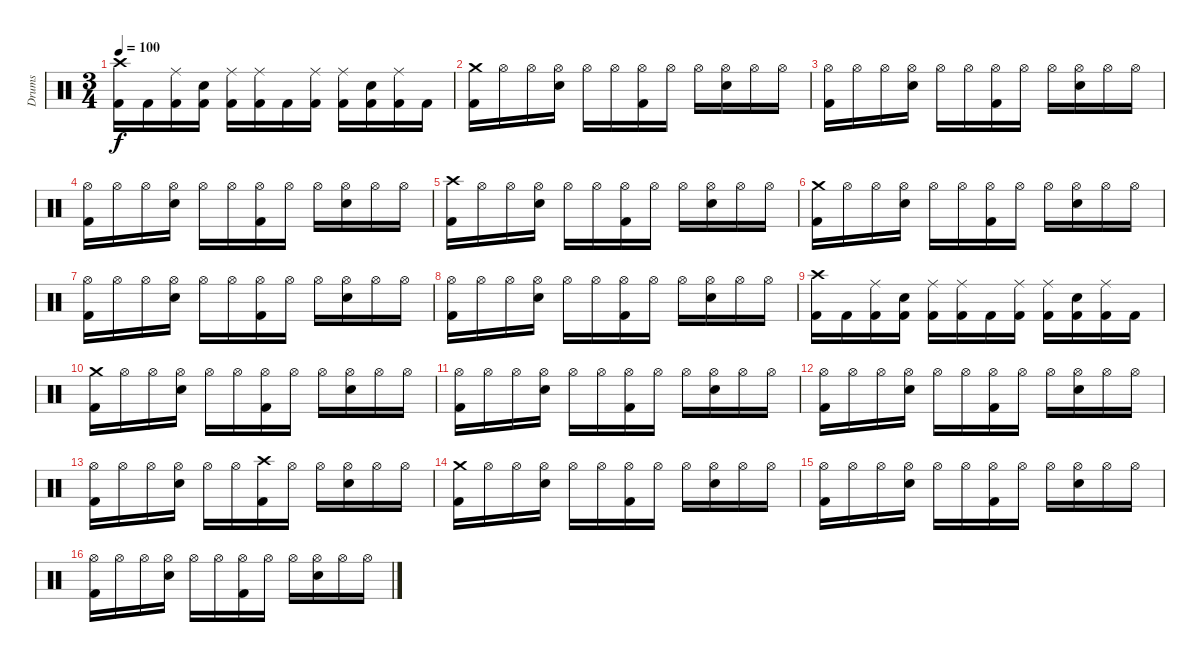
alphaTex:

\track ("Drums" "Drums") {instrument percussion}
\staff {score}
\articulation defaults
\ts (3 4)
\tempo 100
\clef neutral
\ks c
("Crash high (hit)" "Kick (hit) 2").16{dy f} "Kick (hit) 2".16 ("Ride (middle)" "Kick (hit) 2").16 ("Electric Snare (hit)" "Kick (hit) 2").16 ("Ride (middle)" "Kick (hit) 2").16 ("Ride (middle)" "Kick (hit) 2").16 "Kick (hit) 2".16 ("Ride (middle)" "Kick (hit) 2").16 ("Ride (middle)" "Kick (hit) 2").16 ("Electric Snare (hit)" "Kick (hit) 2").16 ("Ride (middle)" "Kick (hit) 2").16 "Kick (hit) 2".16 |
("Crash medium (hit)" "Kick (hit) 2").16 "Hi-Hat (open)".16 "Hi-Hat (open)".16 ("Hi-Hat (open)" "Electric Snare (hit)").16 "Hi-Hat (open)".16 "Hi-Hat (open)".16 ("Hi-Hat (open)" "Kick (hit) 2").16 "Hi-Hat (open)".16 "Hi-Hat (open)".16 ("Hi-Hat (open)" "Electric Snare (hit)").16 "Hi-Hat (open)".16 "Hi-Hat (open)".16 |
("Hi-Hat (open)" "Kick (hit) 2").16 "Hi-Hat (open)".16 "Hi-Hat (open)".16 ("Hi-Hat (open)" "Electric Snare (hit)").16 "Hi-Hat (open)".16 "Hi-Hat (open)".16 ("Hi-Hat (open)" "Kick (hit) 2").16 "Hi-Hat (open)".16 "Hi-Hat (open)".16 ("Hi-Hat (open)" "Electric Snare (hit)").16 "Hi-Hat (open)".16 "Hi-Hat (open)".16 |
("Hi-Hat (open)" "Kick (hit) 2").16 "Hi-Hat (open)".16 "Hi-Hat (open)".16 ("Hi-Hat (open)" "Electric Snare (hit)").16 "Hi-Hat (open)".16 "Hi-Hat (open)".16 ("Hi-Hat (open)" "Kick (hit) 2").16 "Hi-Hat (open)".16 "Hi-Hat (open)".16 ("Hi-Hat (open)" "Electric Snare (hit)").16 "Hi-Hat (open)".16 "Hi-Hat (open)".16 |
("Crash high (hit)" "Kick (hit) 2").16 "Hi-Hat (open)".16 "Hi-Hat (open)".16 ("Hi-Hat (open)" "Electric Snare (hit)").16 "Hi-Hat (open)".16 "Hi-Hat (open)".16 ("Hi-Hat (open)" "Kick (hit) 2").16 "Hi-Hat (open)".16 "Hi-Hat (open)".16 ("Hi-Hat (open)" "Electric Snare (hit)").16 "Hi-Hat (open)".16 "Hi-Hat (open)".16 |
("Crash medium (hit)" "Kick (hit) 2").16 "Hi-Hat (open)".16 "Hi-Hat (open)".16 ("Hi-Hat (open)" "Electric Snare (hit)").16 "Hi-Hat (open)".16 "Hi-Hat (open)".16 ("Hi-Hat (open)" "Kick (hit) 2").16 "Hi-Hat (open)".16 "Hi-Hat (open)".16 ("Hi-Hat (open)" "Electric Snare (hit)").16 "Hi-Hat (open)".16 "Hi-Hat (open)".16 |
("Hi-Hat (open)" "Kick (hit) 2").16 "Hi-Hat (open)".16 "Hi-Hat (open)".16 ("Hi-Hat (open)" "Electric Snare (hit)").16 "Hi-Hat (open)".16 "Hi-Hat (open)".16 ("Hi-Hat (open)" "Kick (hit) 2").16 "Hi-Hat (open)".16 "Hi-Hat (open)".16 ("Hi-Hat (open)" "Electric Snare (hit)").16 "Hi-Hat (open)".16 "Hi-Hat (open)".16 |
("Hi-Hat (open)" "Kick (hit) 2").16 "Hi-Hat (open)".16 "Hi-Hat (open)".16 ("Hi-Hat (open)" "Electric Snare (hit)").16 "Hi-Hat (open)".16 "Hi-Hat (open)".16 ("Hi-Hat (open)" "Kick (hit) 2").16 "Hi-Hat (open)".16 "Hi-Hat (open)".16 ("Hi-Hat (open)" "Electric Snare (hit)").16 "Hi-Hat (open)".16 "Hi-Hat (open)".16 |
("Crash high (hit)" "Kick (hit) 2").16 "Kick (hit) 2".16 ("Ride (middle)" "Kick (hit) 2").16 ("Electric Snare (hit)" "Kick (hit) 2").16 ("Ride (middle)" "Kick (hit) 2").16 ("Ride (middle)" "Kick (hit) 2").16 "Kick (hit) 2".16 ("Ride (middle)" "Kick (hit) 2").16 ("Ride (middle)" "Kick (hit) 2").16 ("Electric Snare (hit)" "Kick (hit) 2").16 ("Ride (middle)" "Kick (hit) 2").16 "Kick (hit) 2".16 |
("Crash medium (hit)" "Kick (hit) 2").16 "Hi-Hat (open)".16 "Hi-Hat (open)".16 ("Hi-Hat (open)" "Electric Snare (hit)").16 "Hi-Hat (open)".16 "Hi-Hat (open)".16 ("Hi-Hat (open)" "Kick (hit) 2").16 "Hi-Hat (open)".16 "Hi-Hat (open)".16 ("Hi-Hat (open)" "Electric Snare (hit)").16 "Hi-Hat (open)".16 "Hi-Hat (open)".16 |
("Hi-Hat (open)" "Kick (hit) 2").16 "Hi-Hat (open)".16 "Hi-Hat (open)".16 ("Hi-Hat (open)" "Electric Snare (hit)").16 "Hi-Hat (open)".16 "Hi-Hat (open)".16 ("Hi-Hat (open)" "Kick (hit) 2").16 "Hi-Hat (open)".16 "Hi-Hat (open)".16 ("Hi-Hat (open)" "Electric Snare (hit)").16 "Hi-Hat (open)".16 "Hi-Hat (open)".16 |
("Hi-Hat (open)" "Kick (hit) 2").16 "Hi-Hat (open)".16 "Hi-Hat (open)".16 ("Hi-Hat (open)" "Electric Snare (hit)").16 "Hi-Hat (open)".16 "Hi-Hat (open)".16 ("Hi-Hat (open)" "Kick (hit) 2").16 "Hi-Hat (open)".16 "Hi-Hat (open)".16 ("Hi-Hat (open)" "Electric Snare (hit)").16 "Hi-Hat (open)".16 "Hi-Hat (open)".16 |
("Hi-Hat (open)" "Kick (hit) 2").16 "Hi-Hat (open)".16 "Hi-Hat (open)".16 ("Hi-Hat (open)" "Electric Snare (hit)").16 "Hi-Hat (open)".16 "Hi-Hat (open)".16 ("Crash high (hit)" "Kick (hit) 2").16 "Hi-Hat (open)".16 "Hi-Hat (open)".16 ("Hi-Hat (open)" "Electric Snare (hit)").16 "Hi-Hat (open)".16 "Hi-Hat (open)".16 |
("Crash medium (hit)" "Kick (hit) 2").16 "Hi-Hat (open)".16 "Hi-Hat (open)".16 ("Hi-Hat (open)" "Electric Snare (hit)").16 "Hi-Hat (open)".16 "Hi-Hat (open)".16 ("Hi-Hat (open)" "Kick (hit) 2").16 "Hi-Hat (open)".16 "Hi-Hat (open)".16 ("Hi-Hat (open)" "Electric Snare (hit)").16 "Hi-Hat (open)".16 "Hi-Hat (open)".16 |
("Hi-Hat (open)" "Kick (hit) 2").16 "Hi-Hat (open)".16 "Hi-Hat (open)".16 ("Hi-Hat (open)" "Electric Snare (hit)").16 "Hi-Hat (open)".16 "Hi-Hat (open)".16 ("Hi-Hat (open)" "Kick (hit) 2").16 "Hi-Hat (open)".16 "Hi-Hat (open)".16 ("Hi-Hat (open)" "Electric Snare (hit)").16 "Hi-Hat (open)".16 "Hi-Hat (open)".16 |
("Hi-Hat (open)" "Kick (hit) 2").16 "Hi-Hat (open)".16 "Hi-Hat (open)".16 ("Hi-Hat (open)" "Electric Snare (hit)").16 "Hi-Hat (open)".16 "Hi-Hat (open)".16 ("Hi-Hat (open)" "Kick (hit) 2").16 "Hi-Hat (open)".16 "Hi-Hat (open)".16 ("Hi-Hat (open)" "Electric Snare (hit)").16 "Hi-Hat (open)".16 "Hi-Hat (open)".16
